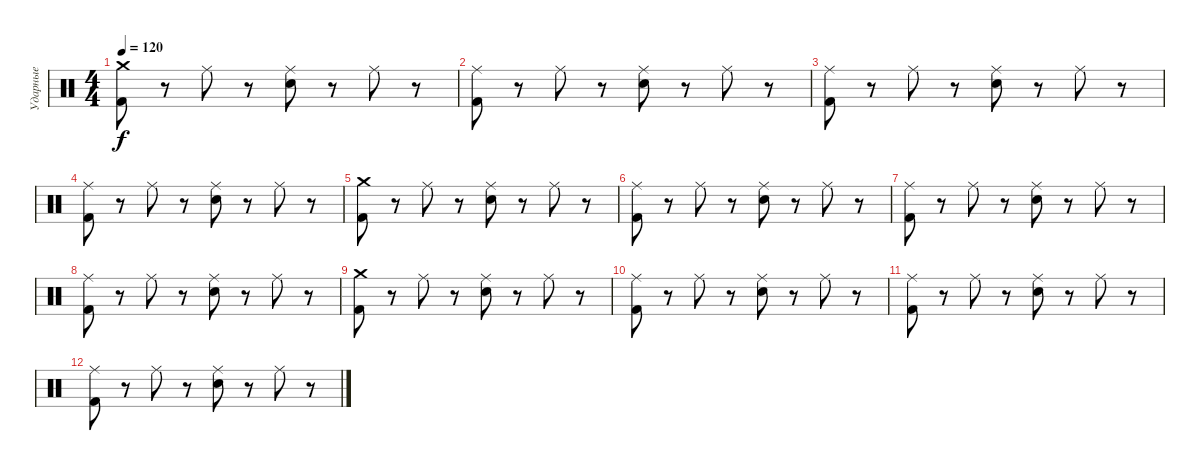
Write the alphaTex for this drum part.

\track ("Ударные" "Ударные") {instrument percussion}
\staff {score}
\articulation defaults
\ts (4 4)
\tempo 120
\clef neutral
\ks c
("Crash medium (hit)" "Kick (hit) 2").8{dy f} r.8 "Ride (middle)".8 r.8 ("Ride (middle)" "Electric Snare (hit)").8 r.8 "Ride (middle)".8 r.8 |
("Ride (middle)" "Kick (hit) 2").8 r.8 "Ride (middle)".8 r.8 ("Ride (middle)" "Electric Snare (hit)").8 r.8 "Ride (middle)".8 r.8 |
("Ride (middle)" "Kick (hit) 2").8 r.8 "Ride (middle)".8 r.8 ("Ride (middle)" "Electric Snare (hit)").8 r.8 "Ride (middle)".8 r.8 |
("Ride (middle)" "Kick (hit) 2").8 r.8 "Ride (middle)".8 r.8 ("Ride (middle)" "Electric Snare (hit)").8 r.8 "Ride (middle)".8 r.8 |
("Crash medium (hit)" "Kick (hit) 2").8 r.8 "Ride (middle)".8 r.8 ("Ride (middle)" "Electric Snare (hit)").8 r.8 "Ride (middle)".8 r.8 |
("Ride (middle)" "Kick (hit) 2").8 r.8 "Ride (middle)".8 r.8 ("Ride (middle)" "Electric Snare (hit)").8 r.8 "Ride (middle)".8 r.8 |
("Ride (middle)" "Kick (hit) 2").8 r.8 "Ride (middle)".8 r.8 ("Ride (middle)" "Electric Snare (hit)").8 r.8 "Ride (middle)".8 r.8 |
("Ride (middle)" "Kick (hit) 2").8 r.8 "Ride (middle)".8 r.8 ("Ride (middle)" "Electric Snare (hit)").8 r.8 "Ride (middle)".8 r.8 |
("Crash medium (hit)" "Kick (hit) 2").8 r.8 "Ride (middle)".8 r.8 ("Ride (middle)" "Electric Snare (hit)").8 r.8 "Ride (middle)".8 r.8 |
("Ride (middle)" "Kick (hit) 2").8 r.8 "Ride (middle)".8 r.8 ("Ride (middle)" "Electric Snare (hit)").8 r.8 "Ride (middle)".8 r.8 |
("Ride (middle)" "Kick (hit) 2").8 r.8 "Ride (middle)".8 r.8 ("Ride (middle)" "Electric Snare (hit)").8 r.8 "Ride (middle)".8 r.8 |
("Ride (middle)" "Kick (hit) 2").8 r.8 "Ride (middle)".8 r.8 ("Ride (middle)" "Electric Snare (hit)").8 r.8 "Ride (middle)".8 r.8
